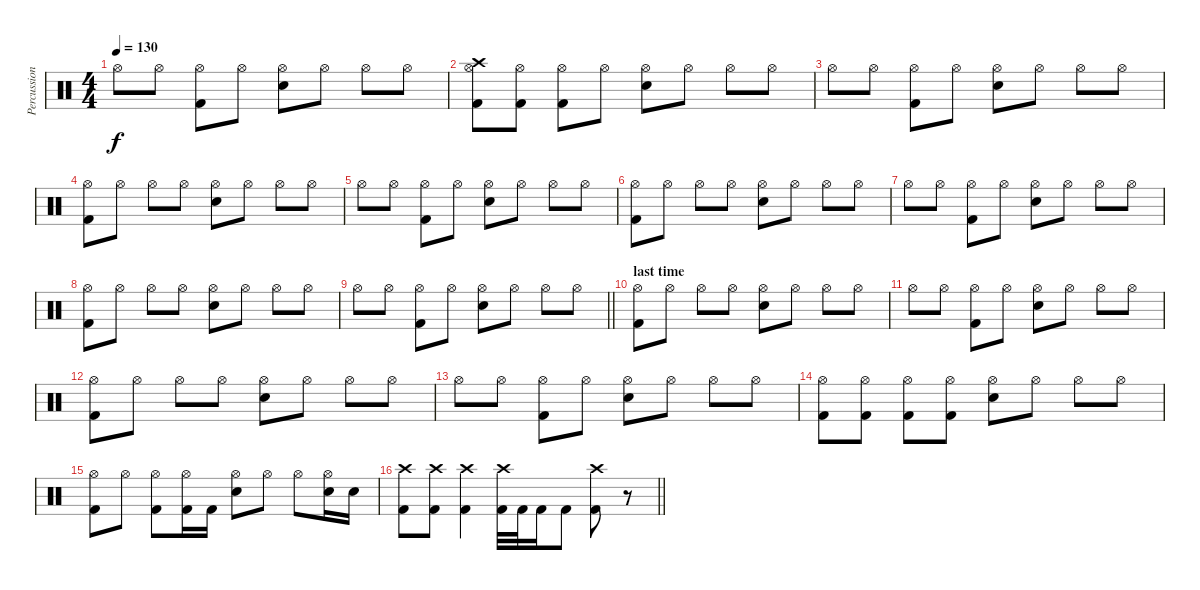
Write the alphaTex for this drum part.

\track ("Percussion" "Percussion") {instrument percussion}
\staff {score}
\articulation defaults
\ts (4 4)
\tempo 130
\clef neutral
\ks c "Hi-Hat (open)".8{dy f} "Hi-Hat (open)".8
("Kick (hit) 2" "Hi-Hat (open)").8 "Hi-Hat (open)".8 ("Electric Snare (hit)" "Hi-Hat (open)").8 "Hi-Hat (open)".8 "Hi-Hat (open)".8 "Hi-Hat (open)".8 |
("Kick (hit) 2" "Crash high (hit)" "Hi-Hat (open)").8 ("Kick (hit) 2" "Hi-Hat (open)").8 ("Kick (hit) 2" "Hi-Hat (open)").8 "Hi-Hat (open)".8 ("Electric Snare (hit)" "Hi-Hat (open)").8 "Hi-Hat (open)".8 "Hi-Hat (open)".8 "Hi-Hat (open)".8 |
"Hi-Hat (open)".8 "Hi-Hat (open)".8 ("Kick (hit) 2" "Hi-Hat (open)").8 "Hi-Hat (open)".8 ("Electric Snare (hit)" "Hi-Hat (open)").8 "Hi-Hat (open)".8 "Hi-Hat (open)".8 "Hi-Hat (open)".8 |
("Kick (hit) 2" "Hi-Hat (open)").8 "Hi-Hat (open)".8 "Hi-Hat (open)".8 "Hi-Hat (open)".8 ("Electric Snare (hit)" "Hi-Hat (open)").8 "Hi-Hat (open)".8 "Hi-Hat (open)".8 "Hi-Hat (open)".8 |
"Hi-Hat (open)".8 "Hi-Hat (open)".8 ("Kick (hit) 2" "Hi-Hat (open)").8 "Hi-Hat (open)".8 ("Electric Snare (hit)" "Hi-Hat (open)").8 "Hi-Hat (open)".8 "Hi-Hat (open)".8 "Hi-Hat (open)".8 |
("Kick (hit) 2" "Hi-Hat (open)").8 "Hi-Hat (open)".8 "Hi-Hat (open)".8 "Hi-Hat (open)".8 ("Electric Snare (hit)" "Hi-Hat (open)").8 "Hi-Hat (open)".8 "Hi-Hat (open)".8 "Hi-Hat (open)".8 |
"Hi-Hat (open)".8 "Hi-Hat (open)".8 ("Kick (hit) 2" "Hi-Hat (open)").8 "Hi-Hat (open)".8 ("Electric Snare (hit)" "Hi-Hat (open)").8 "Hi-Hat (open)".8 "Hi-Hat (open)".8 "Hi-Hat (open)".8 |
("Kick (hit) 2" "Hi-Hat (open)").8 "Hi-Hat (open)".8 "Hi-Hat (open)".8 "Hi-Hat (open)".8 ("Electric Snare (hit)" "Hi-Hat (open)").8 "Hi-Hat (open)".8 "Hi-Hat (open)".8 "Hi-Hat (open)".8 |
\barLineRight lightlight "Hi-Hat (open)".8 "Hi-Hat (open)".8
("Kick (hit) 2" "Hi-Hat (open)").8 "Hi-Hat (open)".8 ("Electric Snare (hit)" "Hi-Hat (open)").8 "Hi-Hat (open)".8 "Hi-Hat (open)".8 "Hi-Hat (open)".8 |
\section ("" "last time")
("Kick (hit) 2" "Hi-Hat (open)").8 "Hi-Hat (open)".8 "Hi-Hat (open)".8 "Hi-Hat (open)".8 ("Electric Snare (hit)" "Hi-Hat (open)").8 "Hi-Hat (open)".8 "Hi-Hat (open)".8 "Hi-Hat (open)".8 |
"Hi-Hat (open)".8 "Hi-Hat (open)".8 ("Kick (hit) 2" "Hi-Hat (open)").8 "Hi-Hat (open)".8 ("Electric Snare (hit)" "Hi-Hat (open)").8 "Hi-Hat (open)".8 "Hi-Hat (open)".8 "Hi-Hat (open)".8 |
("Kick (hit) 2" "Hi-Hat (open)").8 "Hi-Hat (open)".8 "Hi-Hat (open)".8 "Hi-Hat (open)".8 ("Electric Snare (hit)" "Hi-Hat (open)").8 "Hi-Hat (open)".8 "Hi-Hat (open)".8 "Hi-Hat (open)".8 |
"Hi-Hat (open)".8 "Hi-Hat (open)".8 ("Kick (hit) 2" "Hi-Hat (open)").8 "Hi-Hat (open)".8 ("Electric Snare (hit)" "Hi-Hat (open)").8 "Hi-Hat (open)".8 "Hi-Hat (open)".8 "Hi-Hat (open)".8 |
("Kick (hit) 2" "Hi-Hat (open)").8 ("Kick (hit) 2" "Hi-Hat (open)").8 ("Kick (hit) 2" "Hi-Hat (open)").8 ("Kick (hit) 2" "Hi-Hat (open)").8 ("Electric Snare (hit)" "Hi-Hat (open)").8 "Hi-Hat (open)".8 "Hi-Hat (open)".8 "Hi-Hat (open)".8 |
("Kick (hit) 2" "Hi-Hat (open)").8 "Hi-Hat (open)".8 ("Kick (hit) 2" "Hi-Hat (open)").8 ("Kick (hit) 2" "Hi-Hat (open)").16 "Kick (hit) 2".16 ("Electric Snare (hit)" "Hi-Hat (open)").8 "Hi-Hat (open)".8 "Hi-Hat (open)".8 ("Electric Snare (hit)" "Hi-Hat (open)").16 "Electric Snare (hit)".16 |
\barLineRight lightlight
("Kick (hit) 2" "Crash high (hit)").8 ("Kick (hit) 2" "Crash high (hit)").8 ("Kick (hit) 2" "Crash high (hit)").4 ("Kick (hit) 2" "Crash high (hit)").32 "Kick (hit) 2".32 "Kick (hit) 2".16 "Kick (hit) 2".8 ("Kick (hit) 2" "Crash high (hit)").8 r.8
